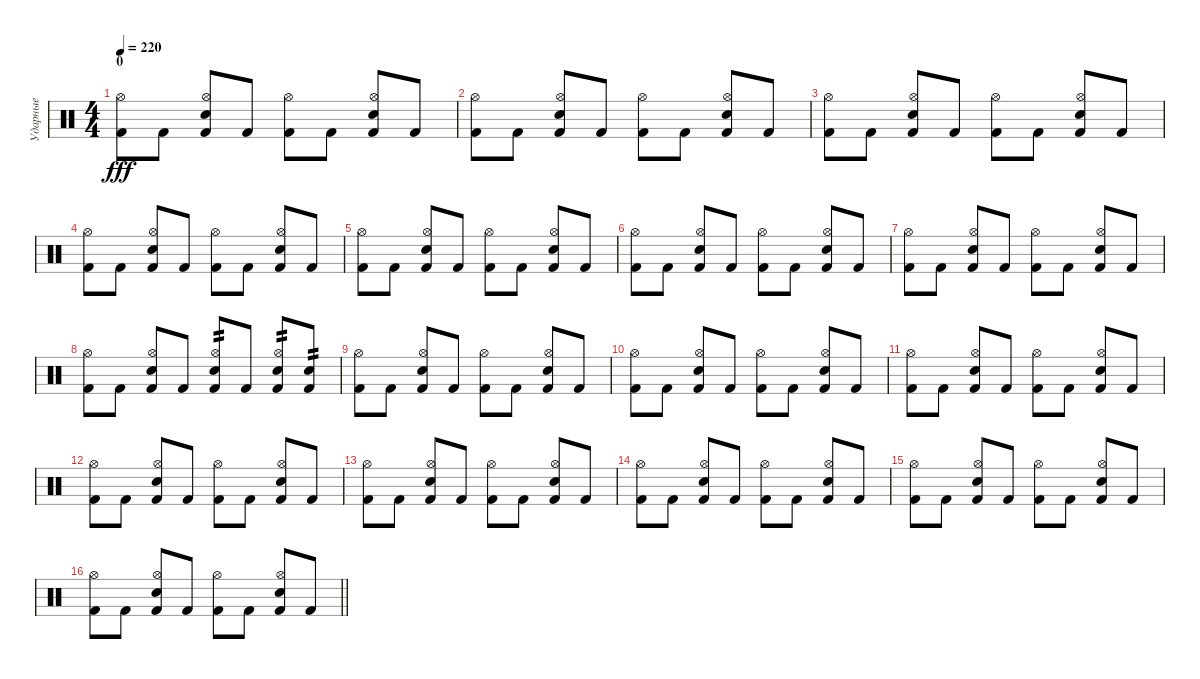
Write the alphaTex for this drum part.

\track ("Ударные" "Ударные") {instrument percussion}
\staff {score}
\articulation defaults
\ts (4 4)
\section ("" "0")
\tempo 220
\clef neutral
\ks c
("Kick (hit) 2" "Hi-Hat (open)").8{dy fff} "Kick (hit) 2".8 ("Kick (hit) 2" "Snare (hit) 2" "Hi-Hat (open)").8 "Kick (hit) 2".8 ("Kick (hit) 2" "Hi-Hat (open)").8 "Kick (hit) 2".8 ("Kick (hit) 2" "Snare (hit) 2" "Hi-Hat (open)").8 "Kick (hit) 2".8 |
("Kick (hit) 2" "Hi-Hat (open)").8 "Kick (hit) 2".8 ("Kick (hit) 2" "Snare (hit) 2" "Hi-Hat (open)").8 "Kick (hit) 2".8 ("Kick (hit) 2" "Hi-Hat (open)").8 "Kick (hit) 2".8 ("Kick (hit) 2" "Snare (hit) 2" "Hi-Hat (open)").8 "Kick (hit) 2".8 |
("Kick (hit) 2" "Hi-Hat (open)").8 "Kick (hit) 2".8 ("Kick (hit) 2" "Snare (hit) 2" "Hi-Hat (open)").8 "Kick (hit) 2".8 ("Kick (hit) 2" "Hi-Hat (open)").8 "Kick (hit) 2".8 ("Kick (hit) 2" "Snare (hit) 2" "Hi-Hat (open)").8 "Kick (hit) 2".8 |
("Kick (hit) 2" "Hi-Hat (open)").8 "Kick (hit) 2".8 ("Kick (hit) 2" "Snare (hit) 2" "Hi-Hat (open)").8 "Kick (hit) 2".8 ("Kick (hit) 2" "Hi-Hat (open)").8 "Kick (hit) 2".8 ("Kick (hit) 2" "Snare (hit) 2" "Hi-Hat (open)").8 "Kick (hit) 2".8 |
("Kick (hit) 2" "Hi-Hat (open)").8 "Kick (hit) 2".8 ("Kick (hit) 2" "Snare (hit) 2" "Hi-Hat (open)").8 "Kick (hit) 2".8 ("Kick (hit) 2" "Hi-Hat (open)").8 "Kick (hit) 2".8 ("Kick (hit) 2" "Snare (hit) 2" "Hi-Hat (open)").8 "Kick (hit) 2".8 |
("Kick (hit) 2" "Hi-Hat (open)").8 "Kick (hit) 2".8 ("Kick (hit) 2" "Snare (hit) 2" "Hi-Hat (open)").8 "Kick (hit) 2".8 ("Kick (hit) 2" "Hi-Hat (open)").8 "Kick (hit) 2".8 ("Kick (hit) 2" "Snare (hit) 2" "Hi-Hat (open)").8 "Kick (hit) 2".8 |
("Kick (hit) 2" "Hi-Hat (open)").8 "Kick (hit) 2".8 ("Kick (hit) 2" "Snare (hit) 2" "Hi-Hat (open)").8 "Kick (hit) 2".8 ("Kick (hit) 2" "Hi-Hat (open)").8 "Kick (hit) 2".8 ("Kick (hit) 2" "Snare (hit) 2" "Hi-Hat (open)").8 "Kick (hit) 2".8 |
("Kick (hit) 2" "Hi-Hat (open)").8 "Kick (hit) 2".8 ("Kick (hit) 2" "Snare (hit) 2" "Hi-Hat (open)").8 "Kick (hit) 2".8 ("Kick (hit) 2" "Snare (hit) 2" "Hi-Hat (open)").8{tp 2} "Kick (hit) 2".8 ("Kick (hit) 2" "Snare (hit) 2" "Hi-Hat (open)").8{tp 2} ("Kick (hit) 2" "Snare (hit) 2").8{tp 2} |
("Kick (hit) 2" "Hi-Hat (open)").8 "Kick (hit) 2".8 ("Kick (hit) 2" "Snare (hit) 2" "Hi-Hat (open)").8 "Kick (hit) 2".8 ("Kick (hit) 2" "Hi-Hat (open)").8 "Kick (hit) 2".8 ("Kick (hit) 2" "Snare (hit) 2" "Hi-Hat (open)").8 "Kick (hit) 2".8 |
("Kick (hit) 2" "Hi-Hat (open)").8 "Kick (hit) 2".8 ("Kick (hit) 2" "Snare (hit) 2" "Hi-Hat (open)").8 "Kick (hit) 2".8 ("Kick (hit) 2" "Hi-Hat (open)").8 "Kick (hit) 2".8 ("Kick (hit) 2" "Snare (hit) 2" "Hi-Hat (open)").8 "Kick (hit) 2".8 |
("Kick (hit) 2" "Hi-Hat (open)").8 "Kick (hit) 2".8 ("Kick (hit) 2" "Snare (hit) 2" "Hi-Hat (open)").8 "Kick (hit) 2".8 ("Kick (hit) 2" "Hi-Hat (open)").8 "Kick (hit) 2".8 ("Kick (hit) 2" "Snare (hit) 2" "Hi-Hat (open)").8 "Kick (hit) 2".8 |
("Kick (hit) 2" "Hi-Hat (open)").8 "Kick (hit) 2".8 ("Kick (hit) 2" "Snare (hit) 2" "Hi-Hat (open)").8 "Kick (hit) 2".8 ("Kick (hit) 2" "Hi-Hat (open)").8 "Kick (hit) 2".8 ("Kick (hit) 2" "Snare (hit) 2" "Hi-Hat (open)").8 "Kick (hit) 2".8 |
("Kick (hit) 2" "Hi-Hat (open)").8 "Kick (hit) 2".8 ("Kick (hit) 2" "Snare (hit) 2" "Hi-Hat (open)").8 "Kick (hit) 2".8 ("Kick (hit) 2" "Hi-Hat (open)").8 "Kick (hit) 2".8 ("Kick (hit) 2" "Snare (hit) 2" "Hi-Hat (open)").8 "Kick (hit) 2".8 |
("Kick (hit) 2" "Hi-Hat (open)").8 "Kick (hit) 2".8 ("Kick (hit) 2" "Snare (hit) 2" "Hi-Hat (open)").8 "Kick (hit) 2".8 ("Kick (hit) 2" "Hi-Hat (open)").8 "Kick (hit) 2".8 ("Kick (hit) 2" "Snare (hit) 2" "Hi-Hat (open)").8 "Kick (hit) 2".8 |
("Kick (hit) 2" "Hi-Hat (open)").8 "Kick (hit) 2".8 ("Kick (hit) 2" "Snare (hit) 2" "Hi-Hat (open)").8 "Kick (hit) 2".8 ("Kick (hit) 2" "Hi-Hat (open)").8 "Kick (hit) 2".8 ("Kick (hit) 2" "Snare (hit) 2" "Hi-Hat (open)").8 "Kick (hit) 2".8 |
\barLineRight lightlight
("Kick (hit) 2" "Hi-Hat (open)").8 "Kick (hit) 2".8 ("Kick (hit) 2" "Snare (hit) 2" "Hi-Hat (open)").8 "Kick (hit) 2".8 ("Kick (hit) 2" "Hi-Hat (open)").8 "Kick (hit) 2".8 ("Kick (hit) 2" "Snare (hit) 2" "Hi-Hat (open)").8 "Kick (hit) 2".8
